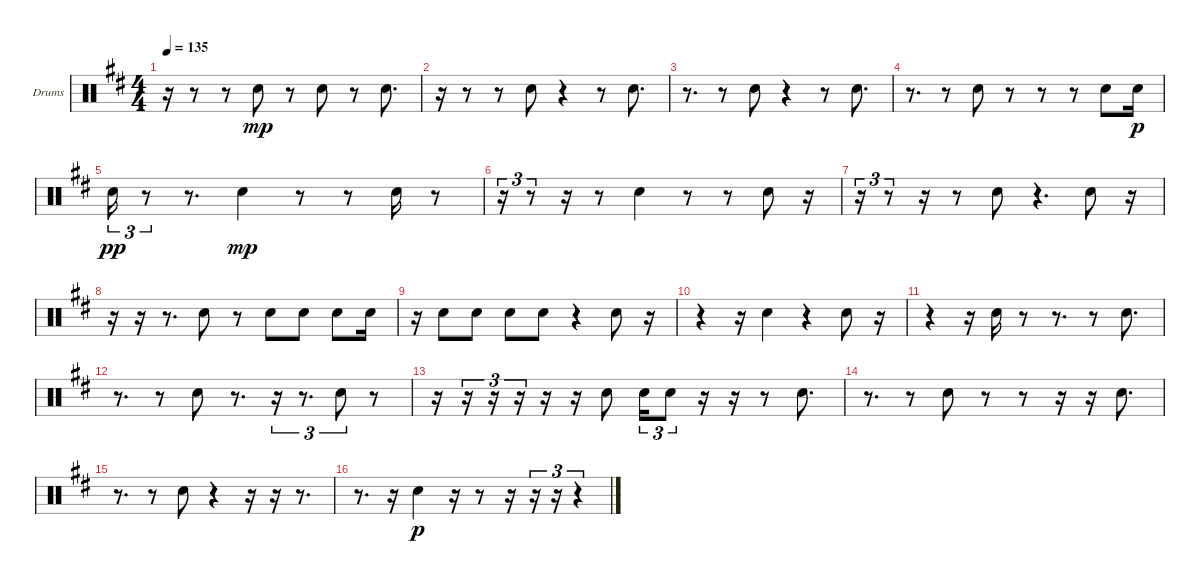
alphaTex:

\bracketExtendMode groupsimilarinstruments
\firstSystemTrackNameOrientation horizontal
\otherSystemsTrackNameOrientation horizontal
\track ("Snare" "Drums") {instrument percussion}
\staff {score}
\articulation defaults
\ts (4 4)
\tempo 135
\clef neutral
\ks d
r.16{dy mp} r.8 r.8 "Snare (hit) 2".8 r.8 "Snare (hit) 2".8 r.8 "Snare (hit) 2".8{d} |
r.16 r.8 r.8 "Snare (hit) 2".8 r.4 r.8 "Snare (hit) 2".8{d} |
r.8{d} r.8 "Snare (hit) 2".8 r.4 r.8 "Snare (hit) 2".8{d} |
r.8{d} r.8 "Snare (hit) 2".8 r.8 r.8 r.8 "Snare (hit) 2".8 "Snare (hit) 2".16{dy p} |
"Snare (hit) 2".16{tu (3 2) dy pp} r.8{tu (3 2)} r.8{d} "Snare (hit) 2".4{dy mp} r.8 r.8 "Snare (hit) 2".16 r.8 |
r.16{tu (3 2)} r.8{tu (3 2)} r.16 r.8 "Snare (hit) 2".4 r.8 r.8 "Snare (hit) 2".8 r.16 |
r.16{tu (3 2)} r.8{tu (3 2)} r.16 r.8 "Snare (hit) 2".8 r.4{d} "Snare (hit) 2".8 r.16 |
r.16 r.16 r.8{d} "Snare (hit) 2".8 r.8 "Snare (hit) 2".8 "Snare (hit) 2".8 "Snare (hit) 2".8 "Snare (hit) 2".16 |
r.16 "Snare (hit) 2".8 "Snare (hit) 2".8 "Snare (hit) 2".8 "Snare (hit) 2".8 r.4 "Snare (hit) 2".8 r.16 |
r.4 r.16 "Snare (hit) 2".4 r.4 "Snare (hit) 2".8 r.16 |
r.4 r.16 "Snare (hit) 2".16 r.8 r.8{d} r.8 "Snare (hit) 2".8{d} |
r.8{d} r.8 "Snare (hit) 2".8 r.8{d} r.16{tu (3 2)} r.8{d tu (3 2)} "Snare (hit) 2".8{tu (3 2)} r.8 |
r.16 r.16{tu (3 2)} r.16{tu (3 2)} r.16{tu (3 2)} r.16 r.16 "Snare (hit) 2".8 "Snare (hit) 2".16{tu (3 2)} "Snare (hit) 2".8{tu (3 2)} r.16 r.16 r.8 "Snare (hit) 2".8{d} |
r.8{d} r.8 "Snare (hit) 2".8 r.8 r.8 r.16 r.16 "Snare (hit) 2".8{d} |
r.8{d} r.8 "Snare (hit) 2".8 r.4 r.16 r.16 r.8{d} |
r.8{d} r.16 "Snare (hit) 2".4{dy p} r.16 r.8 r.16 r.16{tu (3 2)} r.16{tu (3 2)} r.4{tu (3 2)}
